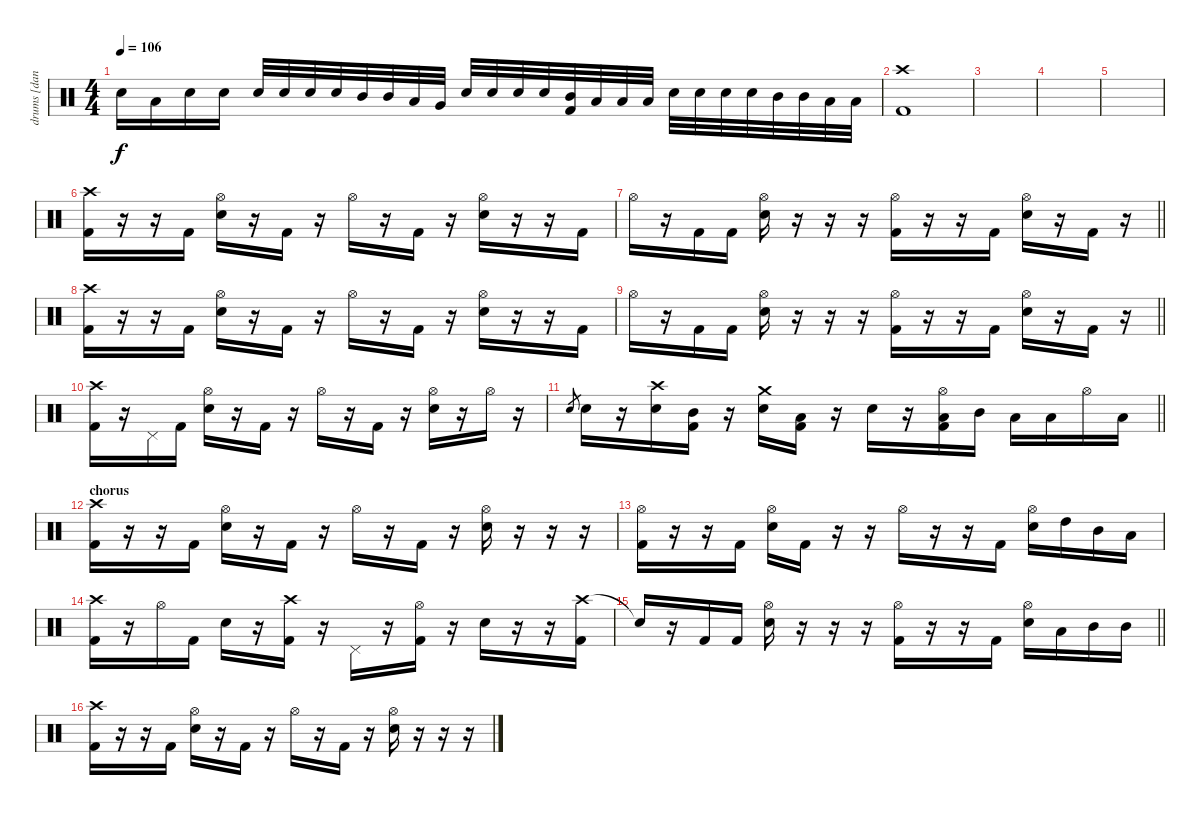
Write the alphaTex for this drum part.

\track ("drums [danny carey]" "drums [dan") {instrument percussion}
\staff {score}
\articulation defaults
\ts (4 4)
\tempo 106
\clef neutral
\ks c "Electric Snare (hit)".16{dy f} "Low Tom (hit)".16 "Electric Snare (hit)".16 "Electric Snare (hit)".16 "Electric Snare (hit)".32 "Electric Snare (hit)".32 "Electric Snare (hit)".32 "Electric Snare (hit)".32 "Mid Tom (hit)".32 "Mid Tom (hit)".32 "Low Tom (hit)".32 "Very Low Tom (hit)".32 "Electric Snare (hit)".32 "Electric Snare (hit)".32 "Electric Snare (hit)".32 "Electric Snare (hit)".32
("Mid Tom (hit)" "Kick (hit) 2").32 "Low Tom (hit)".32 "Low Tom (hit)".32 "Low Tom (hit)".32 "Electric Snare (hit)".32 "Electric Snare (hit)".32 "Electric Snare (hit)".32 "Electric Snare (hit)".32 "Mid Tom (hit)".32 "Mid Tom (hit)".32 "Low Tom (hit)".32 "Low Tom (hit)".32 |
("Crash high (hit)" "Kick (hit) 2").1 |
|
|
|
("Crash high (hit)" "Kick (hit) 2").16 r.16 r.16 "Kick (hit) 2".16 ("Hi-Hat (open)" "Electric Snare (hit)").16 r.16 "Kick (hit) 2".16 r.16 "Hi-Hat (open)".16 r.16 "Kick (hit) 2".16 r.16 ("Hi-Hat (open)" "Electric Snare (hit)").16 r.16 r.16 "Kick (hit) 2".16 |
\barLineRight lightlight "Hi-Hat (open)".16
r.16 "Kick (hit) 2".16 "Kick (hit) 2".16 ("Hi-Hat (open)" "Electric Snare (hit)").16 r.16 r.16 r.16 ("Hi-Hat (open)" "Kick (hit) 2").16 r.16 r.16 "Kick (hit) 2".16 ("Hi-Hat (open)" "Electric Snare (hit)").16 r.16 "Kick (hit) 2".16 r.16 |
("Crash high (hit)" "Kick (hit) 2").16 r.16 r.16 "Kick (hit) 2".16 ("Hi-Hat (open)" "Electric Snare (hit)").16 r.16 "Kick (hit) 2".16 r.16 "Hi-Hat (open)".16 r.16 "Kick (hit) 2".16 r.16 ("Hi-Hat (open)" "Electric Snare (hit)").16 r.16 r.16 "Kick (hit) 2".16 |
\barLineRight lightlight "Hi-Hat (open)".16
r.16 "Kick (hit) 2".16 "Kick (hit) 2".16 ("Hi-Hat (open)" "Electric Snare (hit)").16 r.16 r.16 r.16 ("Hi-Hat (open)" "Kick (hit) 2").16 r.16 r.16 "Kick (hit) 2".16 ("Hi-Hat (open)" "Electric Snare (hit)").16 r.16 "Kick (hit) 2".16 r.16 |
("Crash high (hit)" "Kick (hit) 2").16 r.16 "Pedal Hi-Hat (hit)".16 "Kick (hit) 2".16 ("Hi-Hat (open)" "Electric Snare (hit)").16 r.16 "Kick (hit) 2".16 r.16 "Hi-Hat (open)".16 r.16 "Kick (hit) 2".16 r.16 ("Hi-Hat (open)" "Electric Snare (hit)").16 r.16 "Hi-Hat (open)".16 r.16 |
\barLineRight lightlight "Electric Snare (hit)".8{gr} "Electric Snare (hit)".16
r.16 ("Crash high (hit)" "Electric Snare (hit)").16 ("Mid Tom (hit)" "Kick (hit) 2").16 r.16 ("Crash medium (hit)" "Electric Snare (hit)").16 ("Low Tom (hit)" "Kick (hit) 2").16 r.16 "Electric Snare (hit)".16 r.16 ("Hi-Hat (open)" "Low Tom (hit)" "Kick (hit) 2").16 "Mid Tom (hit)".16 "Low Tom (hit)".16 "Low Tom (hit)".16 "Hi-Hat (open)".16 "Low Tom (hit)".16 |
\section ("" "chorus")
("Crash high (hit)" "Kick (hit) 2").16 r.16 r.16 "Kick (hit) 2".16 ("Hi-Hat (open)" "Electric Snare (hit)").16 r.16 "Kick (hit) 2".16 r.16 "Hi-Hat (open)".16 r.16 "Kick (hit) 2".16 r.16 ("Hi-Hat (open)" "Electric Snare (hit)").16 r.16 r.16 r.16 |
("Hi-Hat (open)" "Kick (hit) 2").16 r.16 r.16 "Kick (hit) 2".16 ("Hi-Hat (open)" "Electric Snare (hit)").16 "Kick (hit) 2".16 r.16 r.16 "Hi-Hat (open)".16 r.16 r.16 "Kick (hit) 2".16 ("Hi-Hat (open)" "Electric Snare (hit)").16 "High Tom (hit)".16 "Mid Tom (hit)".16 "Low Tom (hit)".16 |
("Crash high (hit)" "Kick (hit) 2").16 r.16 "Hi-Hat (open)".16 "Kick (hit) 2".16 "Electric Snare (hit)".16 r.16 ("Crash high (hit)" "Kick (hit) 2").16 r.16 "Pedal Hi-Hat (hit)".16 r.16 ("Hi-Hat (open)" "Kick (hit) 2").16 r.16 "Electric Snare (hit)".16 r.16 r.16 ("Crash high (hit)" "Kick (hit) 2").16 |
\barLineRight lightlight "Snare (hit)"{t}.16
r.16 "Kick (hit) 2".16 "Kick (hit) 2".16 ("Hi-Hat (open)" "Electric Snare (hit)").16 r.16 r.16 r.16 ("Hi-Hat (open)" "Kick (hit) 2").16 r.16 r.16 "Kick (hit) 2".16 ("Hi-Hat (open)" "Electric Snare (hit)").16 "Low Tom (hit)".16 "Mid Tom (hit)".16 "Mid Tom (hit)".16 |
("Crash high (hit)" "Kick (hit) 2").16 r.16 r.16 "Kick (hit) 2".16 ("Hi-Hat (open)" "Electric Snare (hit)").16 r.16 "Kick (hit) 2".16 r.16 "Hi-Hat (open)".16 r.16 "Kick (hit) 2".16 r.16 ("Hi-Hat (open)" "Electric Snare (hit)").16 r.16 r.16 r.16
